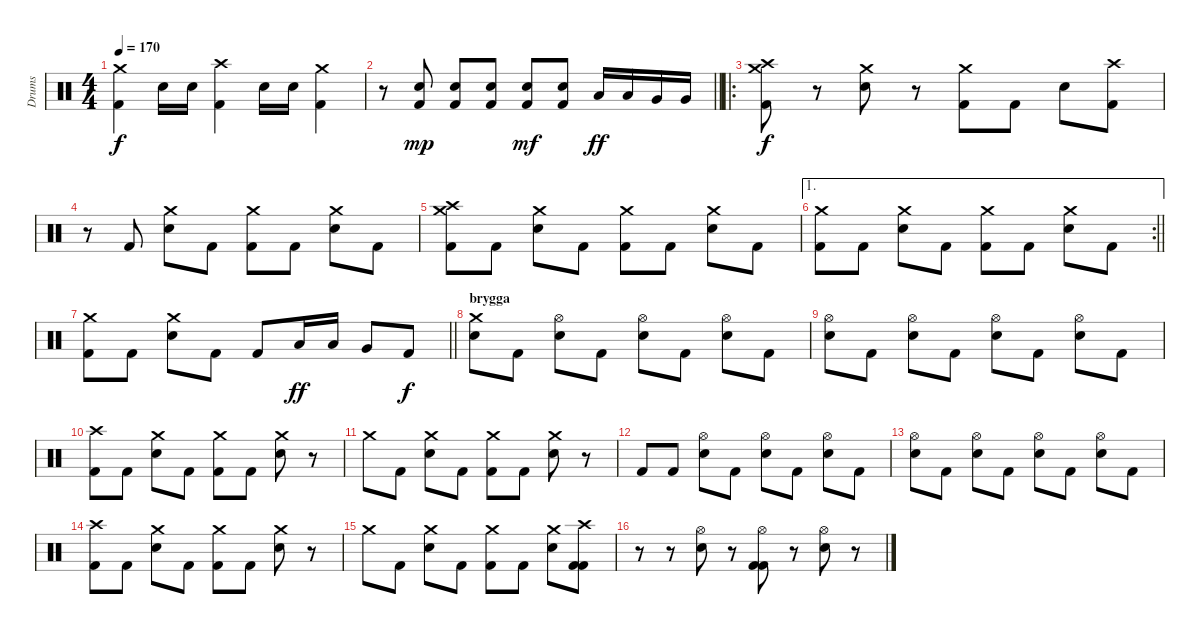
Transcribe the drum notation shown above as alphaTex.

\track ("Drums" "Drums") {instrument percussion}
\staff {score}
\articulation defaults
\ts (4 4)
\tempo 170
\clef neutral
\ks c
("Crash medium (hit)" "Kick (hit) 2").4{dy f} "Electric Snare (hit)".16 "Electric Snare (hit)".16 ("Crash high (hit)" "Kick (hit) 2").4 "Electric Snare (hit)".16 "Electric Snare (hit)".16 ("Crash medium (hit)" "Kick (hit) 2").4 |
\barLineRight lightlight
r.8 ("Electric Snare (hit)" "Kick (hit) 2").8{dy mp} ("Electric Snare (hit)" "Kick (hit) 2").8 ("Electric Snare (hit)" "Kick (hit) 2").8 ("Electric Snare (hit)" "Kick (hit) 2").8{dy mf} ("Electric Snare (hit)" "Kick (hit) 2").8 "Low Tom (hit)".16{dy ff} "Low Tom (hit)".16 "Very Low Tom (hit)".16 "Very Low Tom (hit)".16 |
\ro
("Crash high (hit)" "Crash medium (hit)" "Kick (hit) 2").8{dy f} r.8 ("Crash medium (hit)" "Electric Snare (hit)").8 r.8 ("Crash medium (hit)" "Kick (hit) 2").8 "Kick (hit) 2".8 "Electric Snare (hit)".8 ("Crash high (hit)" "Kick (hit) 2").8 |
r.8 "Kick (hit) 2".8 ("Crash medium (hit)" "Electric Snare (hit)").8 "Kick (hit) 2".8 ("Crash medium (hit)" "Kick (hit) 2").8 "Kick (hit) 2".8 ("Crash medium (hit)" "Electric Snare (hit)").8 "Kick (hit) 2".8 |
("Crash high (hit)" "Crash medium (hit)" "Kick (hit) 2").8 "Kick (hit) 2".8 ("Crash medium (hit)" "Electric Snare (hit)").8 "Kick (hit) 2".8 ("Crash medium (hit)" "Kick (hit) 2").8 "Kick (hit) 2".8 ("Crash medium (hit)" "Electric Snare (hit)").8 "Kick (hit) 2".8 |
\ae 1
\rc 2
\barLineRight lightlight
("Crash medium (hit)" "Kick (hit) 2").8 "Kick (hit) 2".8 ("Crash medium (hit)" "Electric Snare (hit)").8 "Kick (hit) 2".8 ("Crash medium (hit)" "Kick (hit) 2").8 "Kick (hit) 2".8 ("Crash medium (hit)" "Electric Snare (hit)").8 "Kick (hit) 2".8 |
\barLineRight lightlight
("Crash medium (hit)" "Kick (hit) 2").8 "Kick (hit) 2".8 ("Crash medium (hit)" "Electric Snare (hit)").8 "Kick (hit) 2".8 "Kick (hit) 2".8 "Low Tom (hit)".16{dy ff} "Low Tom (hit)".16 "Very Low Tom (hit)".8 "Kick (hit) 2".8{dy f} |
\section ("" "brygga")
("Crash medium (hit)" "Electric Snare (hit)").8 "Kick (hit) 2".8 ("Hi-Hat (open)" "Electric Snare (hit)").8 "Kick (hit) 2".8 ("Hi-Hat (open)" "Electric Snare (hit)").8 "Kick (hit) 2".8 ("Hi-Hat (open)" "Electric Snare (hit)").8 "Kick (hit) 2".8 |
("Hi-Hat (open)" "Electric Snare (hit)").8 "Kick (hit) 2".8 ("Hi-Hat (open)" "Electric Snare (hit)").8 "Kick (hit) 2".8 ("Hi-Hat (open)" "Electric Snare (hit)").8 "Kick (hit) 2".8 ("Hi-Hat (open)" "Electric Snare (hit)").8 "Kick (hit) 2".8 |
("Crash high (hit)" "Kick (hit) 2").8 "Kick (hit) 2".8 ("Crash medium (hit)" "Electric Snare (hit)").8 "Kick (hit) 2".8 ("Crash medium (hit)" "Kick (hit) 2").8 "Kick (hit) 2".8 ("Crash medium (hit)" "Electric Snare (hit)").8 r.8 |
"Crash medium (hit)".8 "Kick (hit) 2".8 ("Crash medium (hit)" "Electric Snare (hit)").8 "Kick (hit) 2".8 ("Crash medium (hit)" "Kick (hit) 2").8 "Kick (hit) 2".8 ("Crash medium (hit)" "Electric Snare (hit)").8 r.8 |
"Kick (hit) 2".8 "Kick (hit) 2".8 ("Hi-Hat (open)" "Electric Snare (hit)").8 "Kick (hit) 2".8 ("Hi-Hat (open)" "Electric Snare (hit)").8 "Kick (hit) 2".8 ("Hi-Hat (open)" "Electric Snare (hit)").8 "Kick (hit) 2".8 |
("Hi-Hat (open)" "Electric Snare (hit)").8 "Kick (hit) 2".8 ("Hi-Hat (open)" "Electric Snare (hit)").8 "Kick (hit) 2".8 ("Hi-Hat (open)" "Electric Snare (hit)").8 "Kick (hit) 2".8 ("Hi-Hat (open)" "Electric Snare (hit)").8 "Kick (hit) 2".8 |
("Crash high (hit)" "Kick (hit) 2").8 "Kick (hit) 2".8 ("Crash medium (hit)" "Electric Snare (hit)").8 "Kick (hit) 2".8 ("Crash medium (hit)" "Kick (hit) 2").8 "Kick (hit) 2".8 ("Crash medium (hit)" "Electric Snare (hit)").8 r.8 |
"Crash medium (hit)".8 "Kick (hit) 2".8 ("Crash medium (hit)" "Electric Snare (hit)").8 "Kick (hit) 2".8 ("Crash medium (hit)" "Kick (hit) 2").8 "Kick (hit) 2".8 ("Crash medium (hit)" "Electric Snare (hit)").8 ("Crash high (hit)" "Kick (hit) 2" "Kick (hit) 2").8 |
r.8 r.8 ("Hi-Hat (open)" "Electric Snare (hit)").8 r.8 ("Hi-Hat (open)" "Kick (hit) 2" "Kick (hit) 2").8 r.8 ("Hi-Hat (open)" "Electric Snare (hit)").8 r.8
